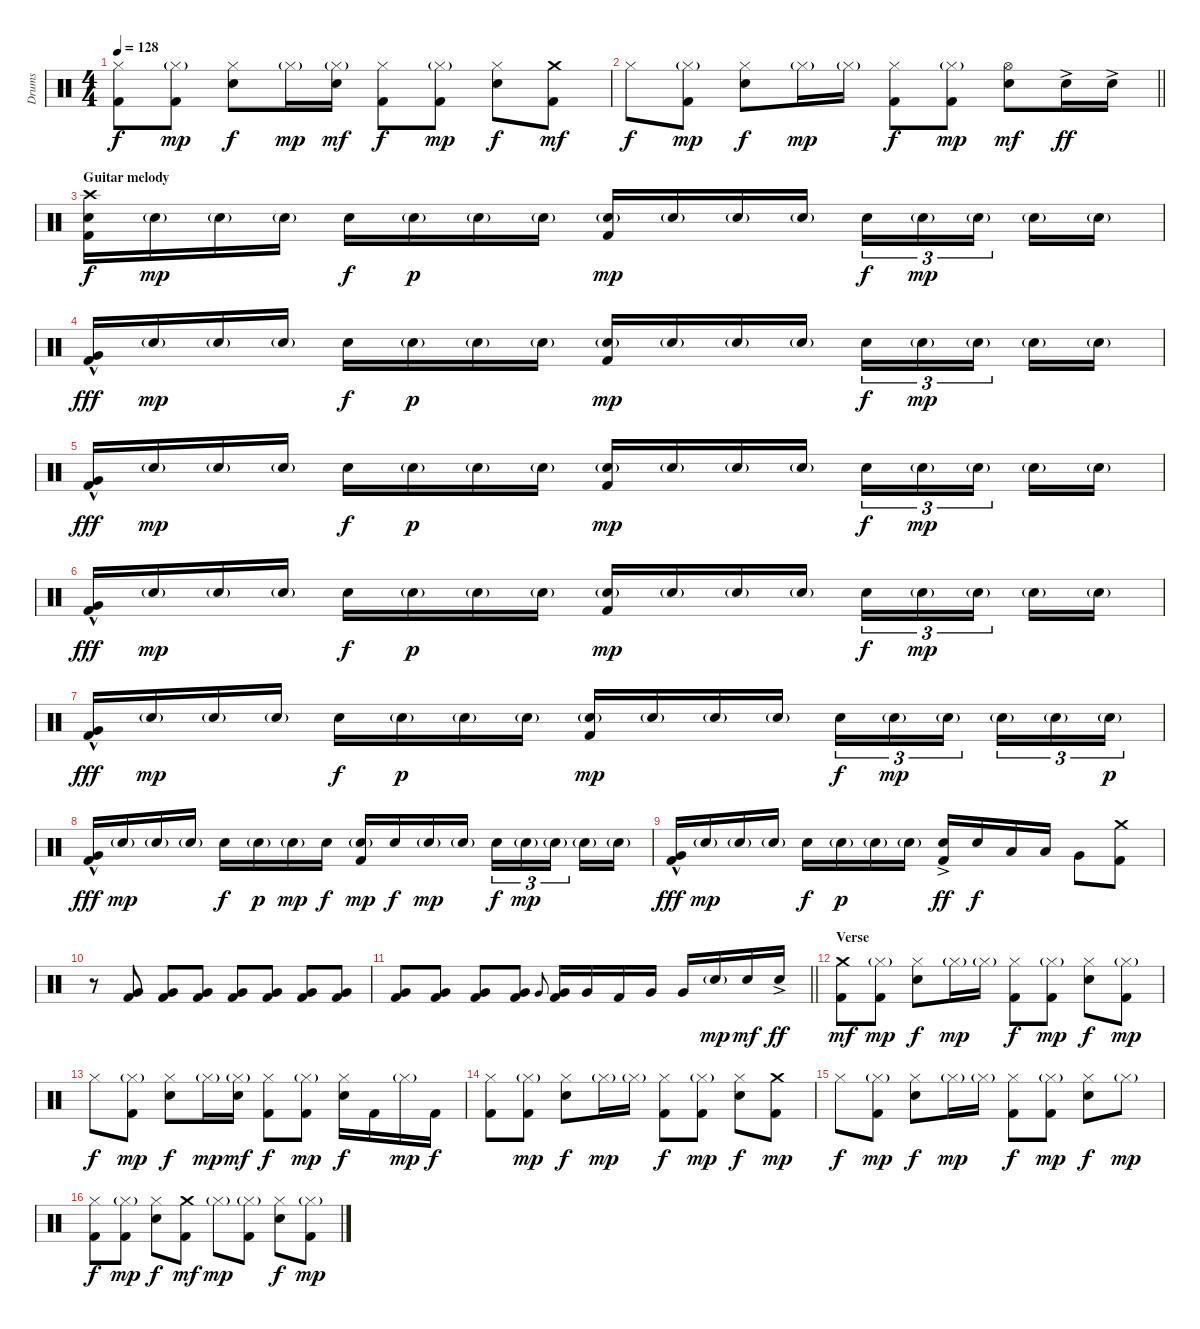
\track ("Drums" "Drums") {instrument percussion}
\staff {score}
\articulation defaults
\ts (4 4)
\tempo 128
\clef neutral
\ks c
("Hi-Hat (closed)" "Kick (hit) 2").8{dy f} ("Hi-Hat (closed)"{g} "Kick (hit) 2").8{dy mp} ("Hi-Hat (closed)" "Electric Snare (hit)").8{dy f} "Hi-Hat (closed)"{g}.16{dy mp} ("Hi-Hat (closed)"{g} "Electric Snare (hit)").16{dy mf} ("Hi-Hat (closed)" "Kick (hit) 2").8{dy f} ("Hi-Hat (closed)"{g} "Kick (hit) 2").8{dy mp} ("Hi-Hat (closed)" "Electric Snare (hit)").8{dy f} ("Crash medium (hit)" "Kick (hit) 2").8{dy mf} |
\barLineRight lightlight "Hi-Hat (closed)".8{dy f}
("Hi-Hat (closed)"{g} "Kick (hit) 2").8{dy mp} ("Hi-Hat (closed)" "Electric Snare (hit)").8{dy f} "Hi-Hat (closed)"{g}.16{dy mp} "Hi-Hat (closed)"{g}.16 ("Hi-Hat (closed)" "Kick (hit) 2").8{dy f} ("Hi-Hat (closed)"{g} "Kick (hit) 2").8{dy mp} ("Hi-Hat (open)" "Electric Snare (hit)").8{dy mf} "Electric Snare (hit)"{ac}.16{dy ff} "Electric Snare (hit)"{ac}.16 |
\section ("" "Guitar melody")
("Crash high (hit)" "Electric Snare (hit)" "Kick (hit) 2").16{dy f volume 15} "Electric Snare (hit)"{g}.16{dy mp} "Electric Snare (hit)"{g}.16 "Electric Snare (hit)"{g}.16 "Electric Snare (hit)".16{dy f} "Electric Snare (hit)"{g}.16{dy p} "Electric Snare (hit)"{g}.16 "Electric Snare (hit)"{g}.16 ("Electric Snare (hit)"{g} "Kick (hit) 2").16{dy mp} "Electric Snare (hit)"{g}.16 "Electric Snare (hit)"{g}.16 "Electric Snare (hit)"{g}.16 "Electric Snare (hit)".16{tu (3 2) dy f} "Electric Snare (hit)"{g}.16{tu (3 2) dy mp} "Electric Snare (hit)"{g}.16{tu (3 2) beam splitsecondary} "Electric Snare (hit)"{g}.16 "Electric Snare (hit)"{g}.16 |
("Very Low Tom (hit)"{hac} "Kick (hit) 2").16{dy fff} "Electric Snare (hit)"{g}.16{dy mp} "Electric Snare (hit)"{g}.16 "Electric Snare (hit)"{g}.16 "Electric Snare (hit)".16{dy f} "Electric Snare (hit)"{g}.16{dy p} "Electric Snare (hit)"{g}.16 "Electric Snare (hit)"{g}.16 ("Electric Snare (hit)"{g} "Kick (hit) 2").16{dy mp} "Electric Snare (hit)"{g}.16 "Electric Snare (hit)"{g}.16 "Electric Snare (hit)"{g}.16 "Electric Snare (hit)".16{tu (3 2) dy f} "Electric Snare (hit)"{g}.16{tu (3 2) dy mp} "Electric Snare (hit)"{g}.16{tu (3 2) beam splitsecondary} "Electric Snare (hit)"{g}.16 "Electric Snare (hit)"{g}.16 |
("Very Low Tom (hit)"{hac} "Kick (hit) 2").16{dy fff} "Electric Snare (hit)"{g}.16{dy mp} "Electric Snare (hit)"{g}.16 "Electric Snare (hit)"{g}.16 "Electric Snare (hit)".16{dy f} "Electric Snare (hit)"{g}.16{dy p} "Electric Snare (hit)"{g}.16 "Electric Snare (hit)"{g}.16 ("Electric Snare (hit)"{g} "Kick (hit) 2").16{dy mp} "Electric Snare (hit)"{g}.16 "Electric Snare (hit)"{g}.16 "Electric Snare (hit)"{g}.16 "Electric Snare (hit)".16{tu (3 2) dy f} "Electric Snare (hit)"{g}.16{tu (3 2) dy mp} "Electric Snare (hit)"{g}.16{tu (3 2) beam splitsecondary} "Electric Snare (hit)"{g}.16 "Electric Snare (hit)"{g}.16 |
("Very Low Tom (hit)"{hac} "Kick (hit) 2").16{dy fff} "Electric Snare (hit)"{g}.16{dy mp} "Electric Snare (hit)"{g}.16 "Electric Snare (hit)"{g}.16 "Electric Snare (hit)".16{dy f} "Electric Snare (hit)"{g}.16{dy p} "Electric Snare (hit)"{g}.16 "Electric Snare (hit)"{g}.16 ("Electric Snare (hit)"{g} "Kick (hit) 2").16{dy mp} "Electric Snare (hit)"{g}.16 "Electric Snare (hit)"{g}.16 "Electric Snare (hit)"{g}.16 "Electric Snare (hit)".16{tu (3 2) dy f} "Electric Snare (hit)"{g}.16{tu (3 2) dy mp} "Electric Snare (hit)"{g}.16{tu (3 2) beam splitsecondary} "Electric Snare (hit)"{g}.16 "Electric Snare (hit)"{g}.16 |
("Very Low Tom (hit)"{hac} "Kick (hit) 2").16{dy fff} "Electric Snare (hit)"{g}.16{dy mp} "Electric Snare (hit)"{g}.16 "Electric Snare (hit)"{g}.16 "Electric Snare (hit)".16{dy f} "Electric Snare (hit)"{g}.16{dy p} "Electric Snare (hit)"{g}.16 "Electric Snare (hit)"{g}.16 ("Electric Snare (hit)"{g} "Kick (hit) 2").16{dy mp} "Electric Snare (hit)"{g}.16 "Electric Snare (hit)"{g}.16 "Electric Snare (hit)"{g}.16 "Electric Snare (hit)".16{tu (3 2) dy f} "Electric Snare (hit)"{g}.16{tu (3 2) dy mp} "Electric Snare (hit)"{g}.16{tu (3 2) beam splitsecondary} "Electric Snare (hit)"{g}.16{tu (3 2)} "Electric Snare (hit)"{g}.16{tu (3 2)} "Electric Snare (hit)"{g}.16{tu (3 2) dy p} |
("Very Low Tom (hit)"{hac} "Kick (hit) 2").16{dy fff} "Electric Snare (hit)"{g}.16{dy mp} "Electric Snare (hit)"{g}.16 "Electric Snare (hit)"{g}.16 "Electric Snare (hit)".16{dy f} "Electric Snare (hit)"{g}.16{dy p} "Electric Snare (hit)"{g}.16{dy mp} "Electric Snare (hit)".16{dy f} ("Electric Snare (hit)"{g} "Kick (hit) 2").16{dy mp} "Electric Snare (hit)".16{dy f} "Electric Snare (hit)"{g}.16{dy mp} "Electric Snare (hit)"{g}.16 "Electric Snare (hit)".16{tu (3 2) dy f} "Electric Snare (hit)"{g}.16{tu (3 2) dy mp} "Electric Snare (hit)"{g}.16{tu (3 2) beam splitsecondary} "Electric Snare (hit)"{g}.16 "Electric Snare (hit)"{g}.16 |
("Very Low Tom (hit)"{hac} "Kick (hit) 2").16{dy fff} "Electric Snare (hit)"{g}.16{dy mp} "Electric Snare (hit)"{g}.16 "Electric Snare (hit)"{g}.16 "Electric Snare (hit)".16{dy f} "Electric Snare (hit)"{g}.16{dy p} "Electric Snare (hit)"{g}.16 "Electric Snare (hit)"{g}.16 ("Electric Snare (hit)"{ac} "Kick (hit) 2").16{dy ff} "Electric Snare (hit)".16{dy f} "Low Tom (hit)".16 "Low Tom (hit)".16 "Very Low Tom (hit)".8 ("Crash medium (hit)" "Kick (hit) 2").8 |
r.8{volume 9} ("Very Low Tom (hit)" "Kick (hit) 2").8 ("Very Low Tom (hit)" "Kick (hit) 2").8{volume 14} ("Very Low Tom (hit)" "Kick (hit) 2").8 ("Very Low Tom (hit)" "Kick (hit) 2").8 ("Very Low Tom (hit)" "Kick (hit) 2").8 ("Very Low Tom (hit)" "Kick (hit) 2").8 ("Very Low Tom (hit)" "Kick (hit) 2").8 |
\barLineRight lightlight
("Very Low Tom (hit)" "Kick (hit) 2").8 ("Very Low Tom (hit)" "Kick (hit) 2").8 ("Very Low Tom (hit)" "Kick (hit) 2").8 ("Very Low Tom (hit)" "Kick (hit) 2").8 "Very Low Tom (hit)".8{gr onbeat} ("Very Low Tom (hit)" "Kick (hit) 2").16 "Very Low Tom (hit)".16 "Kick (hit) 2".16 "Very Low Tom (hit)".16 "Very Low Tom (hit)".16 "Electric Snare (hit)"{g}.16{dy mp} "Electric Snare (hit)".16{dy mf} "Electric Snare (hit)"{ac}.16{dy ff} |
\section ("" "Verse")
("Crash medium (hit)" "Kick (hit) 2").8{dy mf} ("Hi-Hat (closed)"{g} "Kick (hit) 2").8{dy mp} ("Hi-Hat (closed)" "Electric Snare (hit)").8{dy f} "Hi-Hat (closed)"{g}.16{dy mp} "Hi-Hat (closed)"{g}.16 ("Hi-Hat (closed)" "Kick (hit) 2").8{dy f} ("Hi-Hat (closed)"{g} "Kick (hit) 2").8{dy mp} ("Hi-Hat (closed)" "Electric Snare (hit)").8{dy f} ("Hi-Hat (closed)"{g} "Kick (hit) 2").8{dy mp} |
"Hi-Hat (closed)".8{dy f} ("Hi-Hat (closed)"{g} "Kick (hit) 2").8{dy mp} ("Hi-Hat (closed)" "Electric Snare (hit)").8{dy f} "Hi-Hat (closed)"{g}.16{dy mp} ("Hi-Hat (closed)"{g} "Electric Snare (hit)").16{dy mf} ("Hi-Hat (closed)" "Kick (hit) 2").8{dy f} ("Hi-Hat (closed)"{g} "Kick (hit) 2").8{dy mp} ("Hi-Hat (closed)" "Electric Snare (hit)").16{dy f} "Kick (hit) 2".16 "Hi-Hat (closed)"{g}.16{dy mp} "Kick (hit) 2".16{dy f} |
("Hi-Hat (closed)" "Kick (hit) 2").8 ("Hi-Hat (closed)"{g} "Kick (hit) 2").8{dy mp} ("Hi-Hat (closed)" "Electric Snare (hit)").8{dy f} "Hi-Hat (closed)"{g}.16{dy mp} "Hi-Hat (closed)"{g}.16 ("Hi-Hat (closed)" "Kick (hit) 2").8{dy f} ("Hi-Hat (closed)"{g} "Kick (hit) 2").8{dy mp} ("Hi-Hat (closed)" "Electric Snare (hit)").8{dy f} ("Crash medium (hit)" "Kick (hit) 2").8{dy mp} |
"Hi-Hat (closed)".8{dy f} ("Hi-Hat (closed)"{g} "Kick (hit) 2").8{dy mp} ("Hi-Hat (closed)" "Electric Snare (hit)").8{dy f} "Hi-Hat (closed)"{g}.16{dy mp} "Hi-Hat (closed)"{g}.16 ("Hi-Hat (closed)" "Kick (hit) 2").8{dy f} ("Hi-Hat (closed)"{g} "Kick (hit) 2").8{dy mp} ("Hi-Hat (closed)" "Electric Snare (hit)").8{dy f} "Hi-Hat (closed)"{g}.8{dy mp} |
("Hi-Hat (closed)" "Kick (hit) 2").8{dy f} ("Hi-Hat (closed)"{g} "Kick (hit) 2").8{dy mp} ("Hi-Hat (closed)" "Electric Snare (hit)").8{dy f} ("Crash medium (hit)" "Kick (hit) 2").8{dy mf} "Hi-Hat (closed)"{g}.8{dy mp} ("Hi-Hat (closed)"{g} "Kick (hit) 2").8 ("Hi-Hat (closed)" "Electric Snare (hit)").8{dy f} ("Hi-Hat (closed)"{g} "Kick (hit) 2").8{dy mp}
